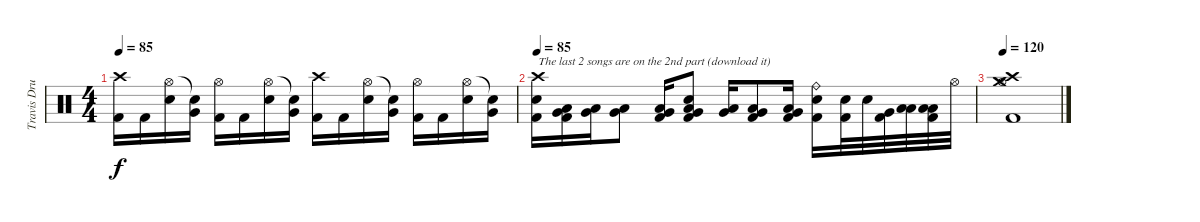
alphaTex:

\track ("Travis Drums" "Travis Dru") {instrument percussion}
\staff {score}
\articulation defaults
\ts (4 4)
\tempo 85
\clef neutral
\ks c
("Crash high (hit)" "Kick (hit) 2").16{dy f} "Kick (hit) 2".16 ("Hi-Hat (open)" "Electric Snare (hit)").16 ("Snare (hit)"{t} "Very Low Tom (hit)").16 ("Hi-Hat (open)" "Kick (hit) 2").16 "Kick (hit) 2".16 ("Hi-Hat (open)" "Electric Snare (hit)").16 ("Snare (hit)"{t} "Very Low Tom (hit)").16 ("Crash high (hit)" "Kick (hit) 2").16 "Kick (hit) 2".16 ("Hi-Hat (open)" "Electric Snare (hit)").16 ("Snare (hit)"{t} "Very Low Tom (hit)").16 ("Hi-Hat (open)" "Kick (hit) 2").16 "Kick (hit) 2".16 ("Hi-Hat (open)" "Electric Snare (hit)").16 ("Snare (hit)"{t} "Very Low Tom (hit)").16 |
\tempo 85
("Crash high (hit)" "Electric Snare (hit)" "Kick (hit) 2").16{txt "The last 2 songs are on the 2nd part (download it)"} ("Very Low Tom (hit)" "Low Floor Tom (hit)" "Kick (hit) 2").16 ("Very Low Tom (hit)" "Low Floor Tom (hit)").16 ("Very Low Tom (hit)" "Low Floor Tom (hit)").8 ("Very Low Tom (hit)" "Low Floor Tom (hit)" "Kick (hit) 2").16 ("Electric Snare (hit)" "Very Low Tom (hit)" "Low Floor Tom (hit)" "Kick (hit) 2").8 ("Very Low Tom (hit)" "Low Floor Tom (hit)").16 ("Very Low Tom (hit)" "Low Floor Tom (hit)" "Kick (hit) 2").8 ("Very Low Tom (hit)" "Low Floor Tom (hit)" "Kick (hit) 2").16 ("Ride (bell)" "Snare (hit) 2" "Kick (hit) 2").16 ("Electric Snare (hit)" "Kick (hit) 2").32 "Electric Snare (hit)".32 ("Very Low Tom (hit)" "Kick (hit) 2").32 ("Low Floor Tom (hit)" "Low Floor Tom (hit)").32 ("Low Floor Tom (hit)" "Low Floor Tom (hit)" "Kick (hit) 2").32 "Hi-Hat (open)".32 |
\tempo 120
("Crash high (hit)" "Hi-Hat (open)" "Crash medium (hit)" "Kick (hit) 2").1
